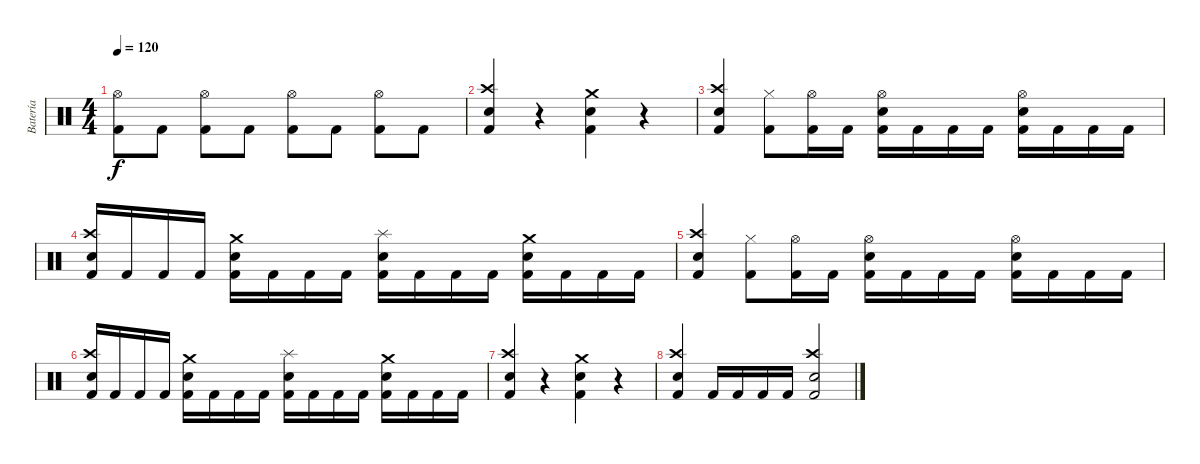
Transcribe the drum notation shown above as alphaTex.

\track ("Batería" "Batería") {instrument percussion}
\staff {score}
\articulation defaults
\ts (4 4)
\tempo 120
\clef neutral
\ks c
("Hi-Hat (open)" "Kick (hit) 2").8{dy f} "Kick (hit) 2".8 ("Hi-Hat (open)" "Kick (hit) 2").8 "Kick (hit) 2".8 ("Hi-Hat (open)" "Kick (hit) 2").8 "Kick (hit) 2".8 ("Hi-Hat (open)" "Kick (hit) 2").8 "Kick (hit) 2".8 |
("Crash high (hit)" "Snare (hit) 2" "Kick (hit) 2").4 r.4 ("Crash medium (hit)" "Snare (hit) 2" "Kick (hit) 2").4 r.4 |
("Crash high (hit)" "Snare (hit) 2" "Kick (hit) 2").4 ("Hi-Hat (closed)" "Kick (hit) 2").8 ("Hi-Hat (open)" "Kick (hit) 2").16 "Kick (hit) 2".16 ("Hi-Hat (open)" "Electric Snare (hit)" "Kick (hit) 2").16 "Kick (hit) 2".16 "Kick (hit) 2".16 "Kick (hit) 2".16 ("Hi-Hat (open)" "Electric Snare (hit)" "Kick (hit) 2").16 "Kick (hit) 2".16 "Kick (hit) 2".16 "Kick (hit) 2".16 |
("Crash high (hit)" "Snare (hit) 2" "Kick (hit) 2").16 "Kick (hit) 2".16 "Kick (hit) 2".16 "Kick (hit) 2".16 ("Crash medium (hit)" "Snare (hit) 2" "Kick (hit) 2").16 "Kick (hit) 2".16 "Kick (hit) 2".16 "Kick (hit) 2".16 ("Splash (hit)" "Snare (hit) 2" "Kick (hit) 2").16 "Kick (hit) 2".16 "Kick (hit) 2".16 "Kick (hit) 2".16 ("Crash medium (hit)" "Snare (hit) 2" "Kick (hit) 2").16 "Kick (hit) 2".16 "Kick (hit) 2".16 "Kick (hit) 2".16 |
("Crash high (hit)" "Snare (hit) 2" "Kick (hit) 2").4 ("Hi-Hat (closed)" "Kick (hit) 2").8 ("Hi-Hat (open)" "Kick (hit) 2").16 "Kick (hit) 2".16 ("Hi-Hat (open)" "Electric Snare (hit)" "Kick (hit) 2").16 "Kick (hit) 2".16 "Kick (hit) 2".16 "Kick (hit) 2".16 ("Hi-Hat (open)" "Electric Snare (hit)" "Kick (hit) 2").16 "Kick (hit) 2".16 "Kick (hit) 2".16 "Kick (hit) 2".16 |
("Crash high (hit)" "Snare (hit) 2" "Kick (hit) 2").16 "Kick (hit) 2".16 "Kick (hit) 2".16 "Kick (hit) 2".16 ("Crash medium (hit)" "Snare (hit) 2" "Kick (hit) 2").16 "Kick (hit) 2".16 "Kick (hit) 2".16 "Kick (hit) 2".16 ("Splash (hit)" "Snare (hit) 2" "Kick (hit) 2").16 "Kick (hit) 2".16 "Kick (hit) 2".16 "Kick (hit) 2".16 ("Crash medium (hit)" "Snare (hit) 2" "Kick (hit) 2").16 "Kick (hit) 2".16 "Kick (hit) 2".16 "Kick (hit) 2".16 |
("Crash high (hit)" "Snare (hit) 2" "Kick (hit) 2").4 r.4 ("Crash medium (hit)" "Snare (hit) 2" "Kick (hit) 2").4 r.4 |
("Crash high (hit)" "Snare (hit) 2" "Kick (hit) 2").4 "Kick (hit) 2".16 "Kick (hit) 2".16 "Kick (hit) 2".16 "Kick (hit) 2".16 ("Crash high (hit)" "Snare (hit) 2" "Kick (hit) 2").2
